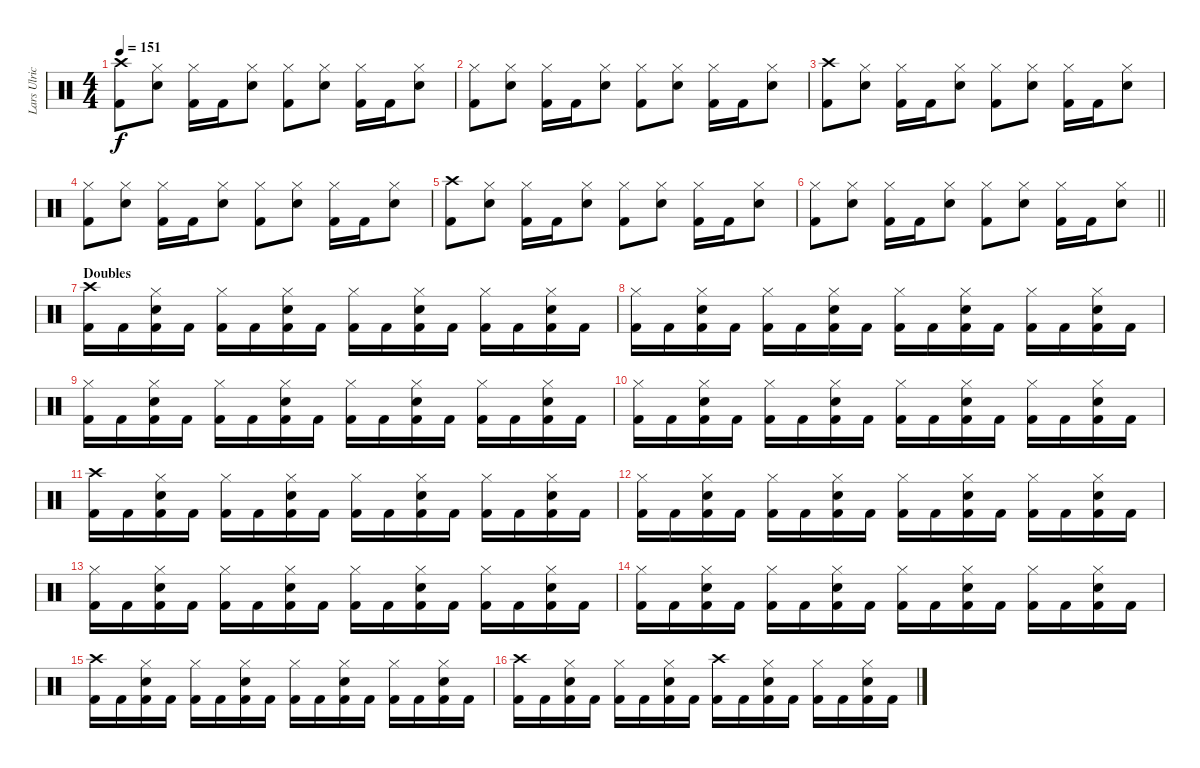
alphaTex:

\track ("Lars Ulrich" "Lars Ulric") {instrument percussion}
\staff {score}
\articulation defaults
\ts (4 4)
\tempo 151
\clef neutral
\ks c
("Crash high (hit)" "Kick (hit) 2").8{dy f} ("Hi-Hat (closed)" "Snare (hit) 2").8 ("Hi-Hat (closed)" "Kick (hit) 2").16 "Kick (hit) 2".16 ("Hi-Hat (closed)" "Snare (hit) 2").8 ("Hi-Hat (closed)" "Kick (hit) 2").8 ("Hi-Hat (closed)" "Snare (hit) 2").8 ("Hi-Hat (closed)" "Kick (hit) 2").16 "Kick (hit) 2".16 ("Hi-Hat (closed)" "Snare (hit) 2").8 |
("Hi-Hat (closed)" "Kick (hit) 2").8 ("Hi-Hat (closed)" "Snare (hit) 2").8 ("Hi-Hat (closed)" "Kick (hit) 2").16 "Kick (hit) 2".16 ("Hi-Hat (closed)" "Snare (hit) 2").8 ("Hi-Hat (closed)" "Kick (hit) 2").8 ("Hi-Hat (closed)" "Snare (hit) 2").8 ("Hi-Hat (closed)" "Kick (hit) 2").16 "Kick (hit) 2".16 ("Hi-Hat (closed)" "Snare (hit) 2").8 |
("Crash high (hit)" "Kick (hit) 2").8 ("Hi-Hat (closed)" "Snare (hit) 2").8 ("Hi-Hat (closed)" "Kick (hit) 2").16 "Kick (hit) 2".16 ("Hi-Hat (closed)" "Snare (hit) 2").8 ("Hi-Hat (closed)" "Kick (hit) 2").8 ("Hi-Hat (closed)" "Snare (hit) 2").8 ("Hi-Hat (closed)" "Kick (hit) 2").16 "Kick (hit) 2".16 ("Hi-Hat (closed)" "Snare (hit) 2").8 |
("Hi-Hat (closed)" "Kick (hit) 2").8 ("Hi-Hat (closed)" "Snare (hit) 2").8 ("Hi-Hat (closed)" "Kick (hit) 2").16 "Kick (hit) 2".16 ("Hi-Hat (closed)" "Snare (hit) 2").8 ("Hi-Hat (closed)" "Kick (hit) 2").8 ("Hi-Hat (closed)" "Snare (hit) 2").8 ("Hi-Hat (closed)" "Kick (hit) 2").16 "Kick (hit) 2".16 ("Hi-Hat (closed)" "Snare (hit) 2").8 |
("Crash high (hit)" "Kick (hit) 2").8 ("Hi-Hat (closed)" "Snare (hit) 2").8 ("Hi-Hat (closed)" "Kick (hit) 2").16 "Kick (hit) 2".16 ("Hi-Hat (closed)" "Snare (hit) 2").8 ("Hi-Hat (closed)" "Kick (hit) 2").8 ("Hi-Hat (closed)" "Snare (hit) 2").8 ("Hi-Hat (closed)" "Kick (hit) 2").16 "Kick (hit) 2".16 ("Hi-Hat (closed)" "Snare (hit) 2").8 |
\barLineRight lightlight
("Hi-Hat (closed)" "Kick (hit) 2").8 ("Hi-Hat (closed)" "Snare (hit) 2").8 ("Hi-Hat (closed)" "Kick (hit) 2").16 "Kick (hit) 2".16 ("Hi-Hat (closed)" "Snare (hit) 2").8 ("Hi-Hat (closed)" "Kick (hit) 2").8 ("Hi-Hat (closed)" "Snare (hit) 2").8 ("Hi-Hat (closed)" "Kick (hit) 2").16 "Kick (hit) 2".16 ("Hi-Hat (closed)" "Snare (hit) 2").8 |
\section ("" "Doubles")
("Crash high (hit)" "Kick (hit) 2").16 "Kick (hit) 2".16 ("Hi-Hat (closed)" "Snare (hit) 2" "Kick (hit) 2").16 "Kick (hit) 2".16 ("Hi-Hat (closed)" "Kick (hit) 2").16 "Kick (hit) 2".16 ("Hi-Hat (closed)" "Snare (hit) 2" "Kick (hit) 2").16 "Kick (hit) 2".16 ("Hi-Hat (closed)" "Kick (hit) 2").16 "Kick (hit) 2".16 ("Hi-Hat (closed)" "Snare (hit) 2" "Kick (hit) 2").16 "Kick (hit) 2".16 ("Hi-Hat (closed)" "Kick (hit) 2").16 "Kick (hit) 2".16 ("Hi-Hat (closed)" "Snare (hit) 2" "Kick (hit) 2").16 "Kick (hit) 2".16 |
("Hi-Hat (closed)" "Kick (hit) 2").16 "Kick (hit) 2".16 ("Hi-Hat (closed)" "Snare (hit) 2" "Kick (hit) 2").16 "Kick (hit) 2".16 ("Hi-Hat (closed)" "Kick (hit) 2").16 "Kick (hit) 2".16 ("Hi-Hat (closed)" "Snare (hit) 2" "Kick (hit) 2").16 "Kick (hit) 2".16 ("Hi-Hat (closed)" "Kick (hit) 2").16 "Kick (hit) 2".16 ("Hi-Hat (closed)" "Snare (hit) 2" "Kick (hit) 2").16 "Kick (hit) 2".16 ("Hi-Hat (closed)" "Kick (hit) 2").16 "Kick (hit) 2".16 ("Hi-Hat (closed)" "Snare (hit) 2" "Kick (hit) 2").16 "Kick (hit) 2".16 |
("Hi-Hat (closed)" "Kick (hit) 2").16 "Kick (hit) 2".16 ("Hi-Hat (closed)" "Snare (hit) 2" "Kick (hit) 2").16 "Kick (hit) 2".16 ("Hi-Hat (closed)" "Kick (hit) 2").16 "Kick (hit) 2".16 ("Hi-Hat (closed)" "Snare (hit) 2" "Kick (hit) 2").16 "Kick (hit) 2".16 ("Hi-Hat (closed)" "Kick (hit) 2").16 "Kick (hit) 2".16 ("Hi-Hat (closed)" "Snare (hit) 2" "Kick (hit) 2").16 "Kick (hit) 2".16 ("Hi-Hat (closed)" "Kick (hit) 2").16 "Kick (hit) 2".16 ("Hi-Hat (closed)" "Snare (hit) 2" "Kick (hit) 2").16 "Kick (hit) 2".16 |
("Hi-Hat (closed)" "Kick (hit) 2").16 "Kick (hit) 2".16 ("Hi-Hat (closed)" "Snare (hit) 2" "Kick (hit) 2").16 "Kick (hit) 2".16 ("Hi-Hat (closed)" "Kick (hit) 2").16 "Kick (hit) 2".16 ("Hi-Hat (closed)" "Snare (hit) 2" "Kick (hit) 2").16 "Kick (hit) 2".16 ("Hi-Hat (closed)" "Kick (hit) 2").16 "Kick (hit) 2".16 ("Hi-Hat (closed)" "Snare (hit) 2" "Kick (hit) 2").16 "Kick (hit) 2".16 ("Hi-Hat (closed)" "Kick (hit) 2").16 "Kick (hit) 2".16 ("Hi-Hat (closed)" "Snare (hit) 2" "Kick (hit) 2").16 "Kick (hit) 2".16 |
("Crash high (hit)" "Kick (hit) 2").16 "Kick (hit) 2".16 ("Hi-Hat (closed)" "Snare (hit) 2" "Kick (hit) 2").16 "Kick (hit) 2".16 ("Hi-Hat (closed)" "Kick (hit) 2").16 "Kick (hit) 2".16 ("Hi-Hat (closed)" "Snare (hit) 2" "Kick (hit) 2").16 "Kick (hit) 2".16 ("Hi-Hat (closed)" "Kick (hit) 2").16 "Kick (hit) 2".16 ("Hi-Hat (closed)" "Snare (hit) 2" "Kick (hit) 2").16 "Kick (hit) 2".16 ("Hi-Hat (closed)" "Kick (hit) 2").16 "Kick (hit) 2".16 ("Hi-Hat (closed)" "Snare (hit) 2" "Kick (hit) 2").16 "Kick (hit) 2".16 |
("Hi-Hat (closed)" "Kick (hit) 2").16 "Kick (hit) 2".16 ("Hi-Hat (closed)" "Snare (hit) 2" "Kick (hit) 2").16 "Kick (hit) 2".16 ("Hi-Hat (closed)" "Kick (hit) 2").16 "Kick (hit) 2".16 ("Hi-Hat (closed)" "Snare (hit) 2" "Kick (hit) 2").16 "Kick (hit) 2".16 ("Hi-Hat (closed)" "Kick (hit) 2").16 "Kick (hit) 2".16 ("Hi-Hat (closed)" "Snare (hit) 2" "Kick (hit) 2").16 "Kick (hit) 2".16 ("Hi-Hat (closed)" "Kick (hit) 2").16 "Kick (hit) 2".16 ("Hi-Hat (closed)" "Snare (hit) 2" "Kick (hit) 2").16 "Kick (hit) 2".16 |
("Hi-Hat (closed)" "Kick (hit) 2").16 "Kick (hit) 2".16 ("Hi-Hat (closed)" "Snare (hit) 2" "Kick (hit) 2").16 "Kick (hit) 2".16 ("Hi-Hat (closed)" "Kick (hit) 2").16 "Kick (hit) 2".16 ("Hi-Hat (closed)" "Snare (hit) 2" "Kick (hit) 2").16 "Kick (hit) 2".16 ("Hi-Hat (closed)" "Kick (hit) 2").16 "Kick (hit) 2".16 ("Hi-Hat (closed)" "Snare (hit) 2" "Kick (hit) 2").16 "Kick (hit) 2".16 ("Hi-Hat (closed)" "Kick (hit) 2").16 "Kick (hit) 2".16 ("Hi-Hat (closed)" "Snare (hit) 2" "Kick (hit) 2").16 "Kick (hit) 2".16 |
("Hi-Hat (closed)" "Kick (hit) 2").16 "Kick (hit) 2".16 ("Hi-Hat (closed)" "Snare (hit) 2" "Kick (hit) 2").16 "Kick (hit) 2".16 ("Hi-Hat (closed)" "Kick (hit) 2").16 "Kick (hit) 2".16 ("Hi-Hat (closed)" "Snare (hit) 2" "Kick (hit) 2").16 "Kick (hit) 2".16 ("Hi-Hat (closed)" "Kick (hit) 2").16 "Kick (hit) 2".16 ("Hi-Hat (closed)" "Snare (hit) 2" "Kick (hit) 2").16 "Kick (hit) 2".16 ("Hi-Hat (closed)" "Kick (hit) 2").16 "Kick (hit) 2".16 ("Hi-Hat (closed)" "Snare (hit) 2" "Kick (hit) 2").16 "Kick (hit) 2".16 |
("Crash high (hit)" "Kick (hit) 2").16 "Kick (hit) 2".16 ("Hi-Hat (closed)" "Snare (hit) 2" "Kick (hit) 2").16 "Kick (hit) 2".16 ("Hi-Hat (closed)" "Kick (hit) 2").16 "Kick (hit) 2".16 ("Hi-Hat (closed)" "Snare (hit) 2" "Kick (hit) 2").16 "Kick (hit) 2".16 ("Hi-Hat (closed)" "Kick (hit) 2").16 "Kick (hit) 2".16 ("Hi-Hat (closed)" "Snare (hit) 2" "Kick (hit) 2").16 "Kick (hit) 2".16 ("Hi-Hat (closed)" "Kick (hit) 2").16 "Kick (hit) 2".16 ("Hi-Hat (closed)" "Snare (hit) 2" "Kick (hit) 2").16 "Kick (hit) 2".16 |
("Crash high (hit)" "Kick (hit) 2").16 "Kick (hit) 2".16 ("Hi-Hat (closed)" "Snare (hit) 2" "Kick (hit) 2").16 "Kick (hit) 2".16 ("Hi-Hat (closed)" "Kick (hit) 2").16 "Kick (hit) 2".16 ("Hi-Hat (closed)" "Snare (hit) 2" "Kick (hit) 2").16 "Kick (hit) 2".16 ("Crash high (hit)" "Kick (hit) 2").16 "Kick (hit) 2".16 ("Hi-Hat (closed)" "Snare (hit) 2" "Kick (hit) 2").16 "Kick (hit) 2".16 ("Hi-Hat (closed)" "Kick (hit) 2").16 "Kick (hit) 2".16 ("Hi-Hat (closed)" "Snare (hit) 2" "Kick (hit) 2").16 "Kick (hit) 2".16
